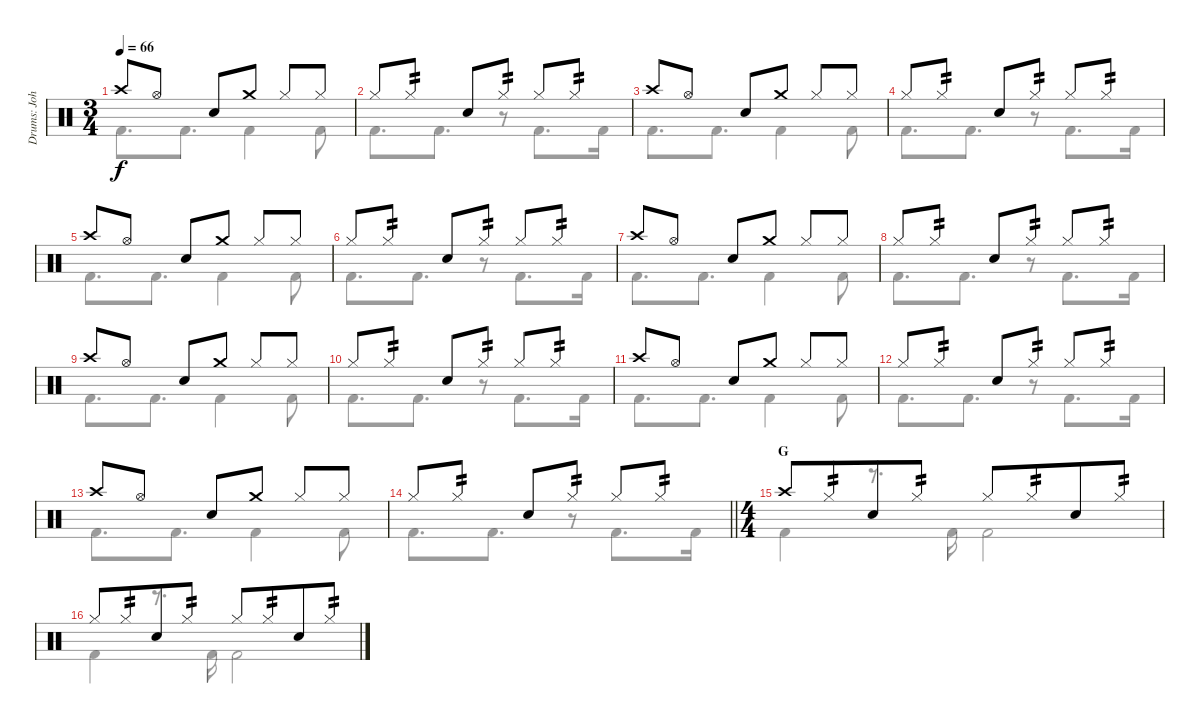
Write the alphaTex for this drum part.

\track ("Drums: John" "Drums: Joh") {instrument percussion}
\staff {score}
\articulation defaults
\voice
\ts (3 4)
\tempo 66
\clef neutral
\ks c "Crash high (hit)".8{dy f} "Hi-Hat (open)".8 "Snare (hit) 2".8 "Crash medium (hit)".8 "Hi-Hat (closed)".8 "Hi-Hat (closed)".8
|
"Hi-Hat (closed)".8 "Hi-Hat (closed)".8{tp 2} "Snare (hit) 2".8 "Hi-Hat (closed)".8{tp 2} "Hi-Hat (closed)".8 "Hi-Hat (closed)".8{tp 2} |
"Crash high (hit)".8 "Hi-Hat (open)".8 "Snare (hit) 2".8 "Crash medium (hit)".8 "Hi-Hat (closed)".8 "Hi-Hat (closed)".8 |
"Hi-Hat (closed)".8 "Hi-Hat (closed)".8{tp 2} "Snare (hit) 2".8 "Hi-Hat (closed)".8{tp 2} "Hi-Hat (closed)".8 "Hi-Hat (closed)".8{tp 2} |
"Crash high (hit)".8 "Hi-Hat (open)".8 "Snare (hit) 2".8 "Crash medium (hit)".8 "Hi-Hat (closed)".8 "Hi-Hat (closed)".8 |
"Hi-Hat (closed)".8 "Hi-Hat (closed)".8{tp 2} "Snare (hit) 2".8 "Hi-Hat (closed)".8{tp 2} "Hi-Hat (closed)".8 "Hi-Hat (closed)".8{tp 2} |
"Crash high (hit)".8 "Hi-Hat (open)".8 "Snare (hit) 2".8 "Crash medium (hit)".8 "Hi-Hat (closed)".8 "Hi-Hat (closed)".8 |
"Hi-Hat (closed)".8 "Hi-Hat (closed)".8{tp 2} "Snare (hit) 2".8 "Hi-Hat (closed)".8{tp 2} "Hi-Hat (closed)".8 "Hi-Hat (closed)".8{tp 2} |
"Crash high (hit)".8 "Hi-Hat (open)".8 "Snare (hit) 2".8 "Crash medium (hit)".8 "Hi-Hat (closed)".8 "Hi-Hat (closed)".8 |
"Hi-Hat (closed)".8 "Hi-Hat (closed)".8{tp 2} "Snare (hit) 2".8 "Hi-Hat (closed)".8{tp 2} "Hi-Hat (closed)".8 "Hi-Hat (closed)".8{tp 2} |
"Crash high (hit)".8 "Hi-Hat (open)".8 "Snare (hit) 2".8 "Crash medium (hit)".8 "Hi-Hat (closed)".8 "Hi-Hat (closed)".8 |
"Hi-Hat (closed)".8 "Hi-Hat (closed)".8{tp 2} "Snare (hit) 2".8 "Hi-Hat (closed)".8{tp 2} "Hi-Hat (closed)".8 "Hi-Hat (closed)".8{tp 2} |
"Crash high (hit)".8 "Hi-Hat (open)".8 "Snare (hit) 2".8 "Crash medium (hit)".8 "Hi-Hat (closed)".8 "Hi-Hat (closed)".8 |
\barLineRight lightlight "Hi-Hat (closed)".8 "Hi-Hat (closed)".8{tp 2} "Snare (hit) 2".8 "Hi-Hat (closed)".8{tp 2} "Hi-Hat (closed)".8 "Hi-Hat (closed)".8{tp 2}
|
\ts (4 4)
\section ("" "G")
"Crash high (hit)".8 "Hi-Hat (closed)".8{tp 2 beam merge} "Electric Snare (hit)".8 "Hi-Hat (closed)".8{tp 2} "Hi-Hat (closed)".8 "Hi-Hat (closed)".8{tp 2 beam merge} "Electric Snare (hit)".8 "Hi-Hat (closed)".8{tp 2} |
"Hi-Hat (closed)".8 "Hi-Hat (closed)".8{tp 2 beam merge} "Electric Snare (hit)".8 "Hi-Hat (closed)".8{tp 2} "Hi-Hat (closed)".8 "Hi-Hat (closed)".8{tp 2 beam merge} "Electric Snare (hit)".8 "Hi-Hat (closed)".8{tp 2}
\voice
\clef neutral
\ottava regular
\simile none
\ks c "Kick (hit) 2".8{d dy f} "Kick (hit) 2".8{d} "Kick (hit) 2".4 "Kick (hit) 2".8
|
"Kick (hit) 2".8{d} "Kick (hit) 2".8{d} r.8 "Kick (hit) 2".8{d} "Kick (hit) 2".16 |
"Kick (hit) 2".8{d} "Kick (hit) 2".8{d} "Kick (hit) 2".4 "Kick (hit) 2".8 |
"Kick (hit) 2".8{d} "Kick (hit) 2".8{d} r.8 "Kick (hit) 2".8{d} "Kick (hit) 2".16 |
"Kick (hit) 2".8{d} "Kick (hit) 2".8{d} "Kick (hit) 2".4 "Kick (hit) 2".8 |
"Kick (hit) 2".8{d} "Kick (hit) 2".8{d} r.8 "Kick (hit) 2".8{d} "Kick (hit) 2".16 |
"Kick (hit) 2".8{d} "Kick (hit) 2".8{d} "Kick (hit) 2".4 "Kick (hit) 2".8 |
"Kick (hit) 2".8{d} "Kick (hit) 2".8{d} r.8 "Kick (hit) 2".8{d} "Kick (hit) 2".16 |
"Kick (hit) 2".8{d} "Kick (hit) 2".8{d} "Kick (hit) 2".4 "Kick (hit) 2".8 |
"Kick (hit) 2".8{d} "Kick (hit) 2".8{d} r.8 "Kick (hit) 2".8{d} "Kick (hit) 2".16 |
"Kick (hit) 2".8{d} "Kick (hit) 2".8{d} "Kick (hit) 2".4 "Kick (hit) 2".8 |
"Kick (hit) 2".8{d} "Kick (hit) 2".8{d} r.8 "Kick (hit) 2".8{d} "Kick (hit) 2".16 |
"Kick (hit) 2".8{d} "Kick (hit) 2".8{d} "Kick (hit) 2".4 "Kick (hit) 2".8 |
\barLineRight lightlight "Kick (hit) 2".8{d} "Kick (hit) 2".8{d}
r.8 "Kick (hit) 2".8{d} "Kick (hit) 2".16 |
"Kick (hit) 2".4 r.8{d} "Kick (hit) 2".16 "Kick (hit) 2".2 |
"Kick (hit) 2".4 r.8{d} "Kick (hit) 2".16 "Kick (hit) 2".2
